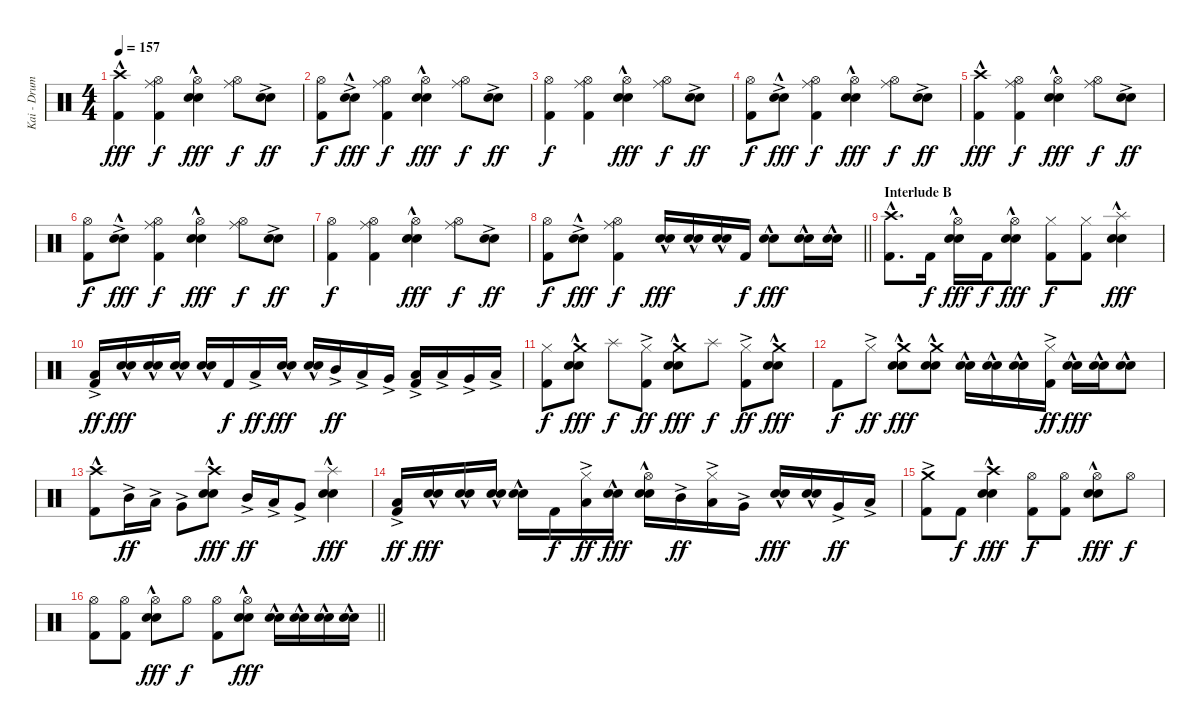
\track ("Kai - Drums" "Kai - Drum") {instrument percussion}
\staff {score}
\articulation defaults
\ts (4 4)
\section ("" "")
\tempo 157
\clef neutral
\ks c
("Crash high (hit)"{hac} "Kick (hit) 2").4{dy fff} ("Hi-Hat (open)" "Ride (middle)" "Kick (hit) 2").4{dy f} ("Hi-Hat (open)" "Electric Snare (hit)"{hac} "Snare (hit) 2"{hac}).4{dy fff} ("Hi-Hat (open)" "Ride (middle)").8{dy f} ("Electric Snare (hit)"{ac} "Snare (hit) 2").8{dy ff} |
("Hi-Hat (open)" "Kick (hit) 2").8{dy f} ("Electric Snare (hit)"{ac} "Snare (hit) 2"{hac}).8{dy fff} ("Hi-Hat (open)" "Ride (middle)" "Kick (hit) 2").4{dy f} ("Hi-Hat (open)" "Electric Snare (hit)"{hac} "Snare (hit) 2"{hac}).4{dy fff} ("Hi-Hat (open)" "Ride (middle)").8{dy f} ("Electric Snare (hit)"{ac} "Snare (hit) 2").8{dy ff} |
("Hi-Hat (open)" "Kick (hit) 2").4{dy f} ("Hi-Hat (open)" "Ride (middle)" "Kick (hit) 2").4 ("Hi-Hat (open)" "Electric Snare (hit)"{hac} "Snare (hit) 2"{hac}).4{dy fff} ("Hi-Hat (open)" "Ride (middle)").8{dy f} ("Electric Snare (hit)"{ac} "Snare (hit) 2").8{dy ff} |
("Hi-Hat (open)" "Kick (hit) 2").8{dy f} ("Electric Snare (hit)"{ac} "Snare (hit) 2"{hac}).8{dy fff} ("Hi-Hat (open)" "Ride (middle)" "Kick (hit) 2").4{dy f} ("Hi-Hat (open)" "Electric Snare (hit)"{hac} "Snare (hit) 2"{hac}).4{dy fff} ("Hi-Hat (open)" "Ride (middle)").8{dy f} ("Electric Snare (hit)"{ac} "Snare (hit) 2").8{dy ff} |
("Crash high (hit)"{hac} "Kick (hit) 2").4{dy fff} ("Hi-Hat (open)" "Ride (middle)" "Kick (hit) 2").4{dy f} ("Hi-Hat (open)" "Electric Snare (hit)"{hac} "Snare (hit) 2"{hac}).4{dy fff} ("Hi-Hat (open)" "Ride (middle)").8{dy f} ("Electric Snare (hit)"{ac} "Snare (hit) 2").8{dy ff} |
("Hi-Hat (open)" "Kick (hit) 2").8{dy f} ("Electric Snare (hit)"{ac} "Snare (hit) 2"{hac}).8{dy fff} ("Hi-Hat (open)" "Ride (middle)" "Kick (hit) 2").4{dy f} ("Hi-Hat (open)" "Electric Snare (hit)"{hac} "Snare (hit) 2"{hac}).4{dy fff} ("Hi-Hat (open)" "Ride (middle)").8{dy f} ("Electric Snare (hit)"{ac} "Snare (hit) 2").8{dy ff} |
("Hi-Hat (open)" "Kick (hit) 2").4{dy f} ("Hi-Hat (open)" "Ride (middle)" "Kick (hit) 2").4 ("Hi-Hat (open)" "Electric Snare (hit)"{hac} "Snare (hit) 2"{hac}).4{dy fff} ("Hi-Hat (open)" "Ride (middle)").8{dy f} ("Electric Snare (hit)"{ac} "Snare (hit) 2").8{dy ff} |
\barLineRight lightlight
("Hi-Hat (open)" "Kick (hit) 2").8{dy f} ("Electric Snare (hit)"{ac} "Snare (hit) 2"{hac}).8{dy fff} ("Hi-Hat (open)" "Ride (middle)" "Kick (hit) 2").4{dy f} ("Electric Snare (hit)"{hac} "Snare (hit) 2").16{dy fff} ("Electric Snare (hit)"{hac} "Snare (hit) 2").16 ("Electric Snare (hit)"{hac} "Snare (hit) 2").16 "Kick (hit) 2".16{dy f} ("Electric Snare (hit)"{hac} "Snare (hit) 2").8{dy fff} ("Electric Snare (hit)"{hac} "Snare (hit) 2").16 ("Electric Snare (hit)"{hac} "Snare (hit) 2").16 |
\section ("" "Interlude B")
("Crash high (hit)"{hac} "Kick (hit) 2").8{d} "Kick (hit) 2".16{dy f} ("Hi-Hat (open)" "Electric Snare (hit)"{hac} "Snare (hit) 2").16{dy fff} "Kick (hit) 2".16{dy f} ("Hi-Hat (open)" "Electric Snare (hit)"{hac} "Snare (hit) 2").8{dy fff} ("Hi-Hat (closed)" "Kick (hit) 2").8{dy f} ("Hi-Hat (closed)" "Kick (hit) 2").8 ("Splash (hit)"{hac} "Electric Snare (hit)"{hac} "Snare (hit) 2").4{dy fff} |
("Low Tom (hit)"{ac} "Kick (hit) 2").16{dy ff} ("Electric Snare (hit)"{hac} "Snare (hit) 2").16{dy fff} ("Electric Snare (hit)"{hac} "Snare (hit) 2").16 ("Electric Snare (hit)"{hac} "Snare (hit) 2").16 ("Electric Snare (hit)"{hac} "Snare (hit) 2").16 "Kick (hit) 2".16{dy f} "Low Tom (hit)"{ac}.16{dy ff} ("Electric Snare (hit)"{hac} "Snare (hit) 2").16{dy fff} ("Electric Snare (hit)"{hac} "Snare (hit) 2").16 "Mid Tom (hit)"{ac}.16{dy ff} "Low Tom (hit)"{ac}.16 "Very Low Tom (hit)"{ac}.16 ("Low Tom (hit)"{ac} "Kick (hit) 2").16 "Low Tom (hit)"{ac}.16 "Very Low Tom (hit)"{ac}.16 "Low Floor Tom (hit)"{ac}.16 |
("Hi-Hat (closed)" "Kick (hit) 2").8{dy f} ("Crash medium (hit)" "Electric Snare (hit)"{hac} "Snare (hit) 2").8{dy fff} "Splash (hit)".8{dy f} ("Hi-Hat (closed)"{ac} "Kick (hit) 2").8{dy ff} ("Crash medium (hit)" "Electric Snare (hit)"{hac} "Snare (hit) 2").8{dy fff} "Splash (hit)".8{dy f} ("Hi-Hat (closed)"{ac} "Kick (hit) 2").8{dy ff} ("Crash medium (hit)" "Electric Snare (hit)"{hac} "Snare (hit) 2").8{dy fff} |
"Kick (hit) 2".8{dy f} "Hi-Hat (closed)"{ac}.8{dy ff} ("Crash medium (hit)" "Electric Snare (hit)"{hac} "Snare (hit) 2").8{dy fff} ("Crash medium (hit)" "Electric Snare (hit)"{hac} "Snare (hit) 2").8 ("Electric Snare (hit)"{hac} "Snare (hit) 2").16 ("Electric Snare (hit)"{hac} "Snare (hit) 2").16 ("Electric Snare (hit)"{hac} "Snare (hit) 2").16 ("Hi-Hat (closed)"{ac} "Kick (hit) 2").16{dy ff} ("Electric Snare (hit)"{hac} "Snare (hit) 2").16{dy fff} ("Electric Snare (hit)"{hac} "Snare (hit) 2").16 ("Electric Snare (hit)"{hac} "Snare (hit) 2").8 |
("Crash high (hit)"{hac} "Kick (hit) 2").8 "Mid Tom (hit)"{ac}.16{dy ff} "Low Tom (hit)"{ac}.16 "Very Low Tom (hit)"{ac}.8 ("Crash high (hit)"{hac} "Electric Snare (hit)"{hac} "Snare (hit) 2").8{dy fff} "Mid Tom (hit)"{ac}.16{dy ff} "Low Tom (hit)"{ac}.16 "Very Low Tom (hit)"{ac}.8 ("Splash (hit)"{hac} "Electric Snare (hit)"{hac} "Snare (hit) 2").4{dy fff} |
("Low Tom (hit)"{ac} "Kick (hit) 2").16{dy ff} ("Electric Snare (hit)"{hac} "Snare (hit) 2").16{dy fff} ("Electric Snare (hit)"{hac} "Snare (hit) 2").16 ("Electric Snare (hit)"{hac} "Snare (hit) 2").16 ("Electric Snare (hit)"{hac} "Snare (hit) 2").16 "Kick (hit) 2".16{dy f} ("Hi-Hat (closed)" "Low Tom (hit)"{ac}).16{dy ff} ("Electric Snare (hit)"{hac} "Snare (hit) 2").16{dy fff} ("Hi-Hat (open)" "Electric Snare (hit)"{hac} "Snare (hit) 2").16 "Mid Tom (hit)"{ac}.16{dy ff} ("Hi-Hat (closed)" "Low Tom (hit)"{ac}).16 "Very Low Tom (hit)"{ac}.16 ("Electric Snare (hit)"{hac} "Snare (hit) 2").16{dy fff} ("Electric Snare (hit)"{hac} "Snare (hit) 2").16 "Very Low Tom (hit)"{ac}.16{dy ff} "Low Floor Tom (hit)"{ac}.16 |
("Crash medium (hit)"{ac} "Kick (hit) 2").8 "Kick (hit) 2".8{dy f} ("Crash high (hit)"{hac} "Electric Snare (hit)"{hac} "Snare (hit) 2").4{dy fff} ("Hi-Hat (open)" "Kick (hit) 2").8{dy f} ("Hi-Hat (open)" "Kick (hit) 2").8 ("Hi-Hat (open)" "Electric Snare (hit)"{hac} "Snare (hit) 2").8{dy fff} "Hi-Hat (open)".8{dy f} |
\barLineRight lightlight
("Hi-Hat (open)" "Kick (hit) 2").8 ("Hi-Hat (open)" "Kick (hit) 2").8 ("Hi-Hat (open)" "Electric Snare (hit)"{hac} "Snare (hit) 2").8{dy fff} "Hi-Hat (open)".8{dy f} ("Hi-Hat (open)" "Kick (hit) 2").8 ("Hi-Hat (open)" "Electric Snare (hit)"{hac} "Snare (hit) 2").8{dy fff} ("Electric Snare (hit)"{hac} "Snare (hit) 2").16 ("Electric Snare (hit)"{hac} "Snare (hit) 2").16 ("Electric Snare (hit)"{hac} "Snare (hit) 2").16 ("Electric Snare (hit)"{hac} "Snare (hit) 2").16
